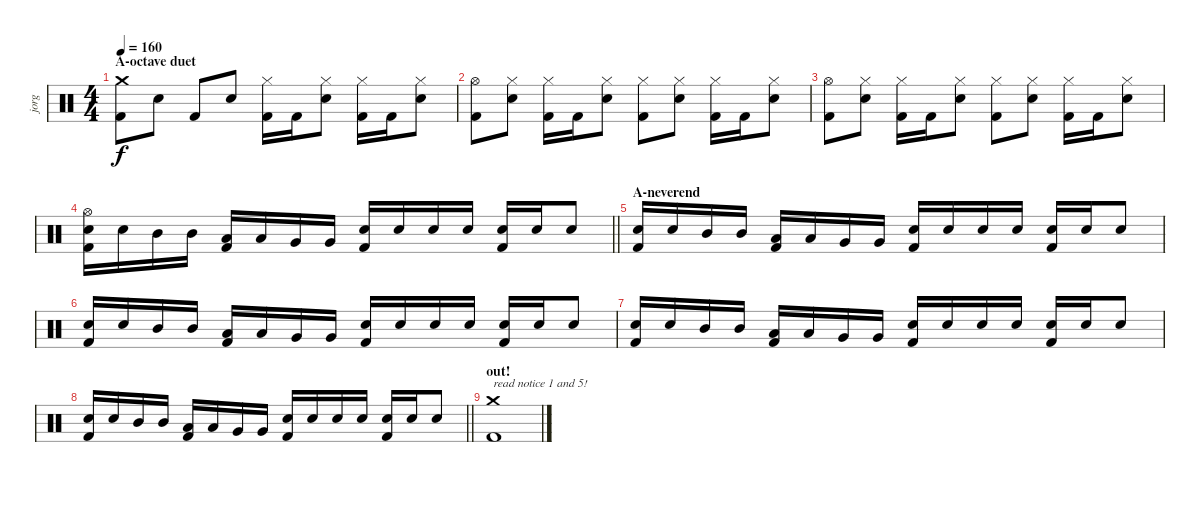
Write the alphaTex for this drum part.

\track ("jorg" "jorg") {instrument percussion}
\staff {score}
\articulation defaults
\ts (4 4)
\section ("" "A-octave duet")
\tempo 160
\clef neutral
\ks c
("Crash medium (hit)" "Kick (hit) 2").8{dy f} "Electric Snare (hit)".8 "Kick (hit) 2".8 "Electric Snare (hit)".8 ("Hi-Hat (closed)" "Kick (hit) 2").16 "Kick (hit) 2".16 ("Hi-Hat (closed)" "Electric Snare (hit)").8 ("Hi-Hat (closed)" "Kick (hit) 2").16 "Kick (hit) 2".16 ("Hi-Hat (closed)" "Electric Snare (hit)").8 |
("Hi-Hat (open)" "Kick (hit) 2").8 ("Hi-Hat (closed)" "Electric Snare (hit)").8 ("Hi-Hat (closed)" "Kick (hit) 2").16 "Kick (hit) 2".16 ("Hi-Hat (closed)" "Electric Snare (hit)").8 ("Hi-Hat (closed)" "Kick (hit) 2").8 ("Hi-Hat (closed)" "Electric Snare (hit)").8 ("Hi-Hat (closed)" "Kick (hit) 2").16 "Kick (hit) 2".16 ("Hi-Hat (closed)" "Electric Snare (hit)").8 |
("Hi-Hat (open)" "Kick (hit) 2").8 ("Hi-Hat (closed)" "Electric Snare (hit)").8 ("Hi-Hat (closed)" "Kick (hit) 2").16 "Kick (hit) 2".16 ("Hi-Hat (closed)" "Electric Snare (hit)").8 ("Hi-Hat (closed)" "Kick (hit) 2").8 ("Hi-Hat (closed)" "Electric Snare (hit)").8 ("Hi-Hat (closed)" "Kick (hit) 2").16 "Kick (hit) 2".16 ("Hi-Hat (closed)" "Electric Snare (hit)").8 |
\barLineRight lightlight
("Hi-Hat (open)" "Electric Snare (hit)" "Kick (hit) 2").16 "Electric Snare (hit)".16 "Mid Tom (hit)".16 "Mid Tom (hit)".16 ("Low Tom (hit)" "Kick (hit) 2").16 "Low Tom (hit)".16 "Very Low Tom (hit)".16 "Very Low Tom (hit)".16 ("Electric Snare (hit)" "Kick (hit) 2").16 "Electric Snare (hit)".16 "Electric Snare (hit)".16 "Electric Snare (hit)".16 ("Electric Snare (hit)" "Kick (hit) 2").16 "Electric Snare (hit)".16 "Electric Snare (hit)".8 |
\section ("" "A-neverend")
("Electric Snare (hit)" "Kick (hit) 2").16 "Electric Snare (hit)".16 "Mid Tom (hit)".16 "Mid Tom (hit)".16 ("Low Tom (hit)" "Kick (hit) 2").16 "Low Tom (hit)".16 "Very Low Tom (hit)".16 "Very Low Tom (hit)".16 ("Electric Snare (hit)" "Kick (hit) 2").16 "Electric Snare (hit)".16 "Electric Snare (hit)".16 "Electric Snare (hit)".16 ("Electric Snare (hit)" "Kick (hit) 2").16 "Electric Snare (hit)".16 "Electric Snare (hit)".8 |
("Electric Snare (hit)" "Kick (hit) 2").16 "Electric Snare (hit)".16 "Mid Tom (hit)".16 "Mid Tom (hit)".16 ("Low Tom (hit)" "Kick (hit) 2").16 "Low Tom (hit)".16 "Very Low Tom (hit)".16 "Very Low Tom (hit)".16 ("Electric Snare (hit)" "Kick (hit) 2").16 "Electric Snare (hit)".16 "Electric Snare (hit)".16 "Electric Snare (hit)".16 ("Electric Snare (hit)" "Kick (hit) 2").16 "Electric Snare (hit)".16 "Electric Snare (hit)".8 |
("Electric Snare (hit)" "Kick (hit) 2").16 "Electric Snare (hit)".16 "Mid Tom (hit)".16 "Mid Tom (hit)".16 ("Low Tom (hit)" "Kick (hit) 2").16 "Low Tom (hit)".16 "Very Low Tom (hit)".16 "Very Low Tom (hit)".16 ("Electric Snare (hit)" "Kick (hit) 2").16 "Electric Snare (hit)".16 "Electric Snare (hit)".16 "Electric Snare (hit)".16 ("Electric Snare (hit)" "Kick (hit) 2").16 "Electric Snare (hit)".16 "Electric Snare (hit)".8 |
\barLineRight lightlight
("Electric Snare (hit)" "Kick (hit) 2").16 "Electric Snare (hit)".16 "Mid Tom (hit)".16 "Mid Tom (hit)".16 ("Low Tom (hit)" "Kick (hit) 2").16 "Low Tom (hit)".16 "Very Low Tom (hit)".16 "Very Low Tom (hit)".16 ("Electric Snare (hit)" "Kick (hit) 2").16 "Electric Snare (hit)".16 "Electric Snare (hit)".16 "Electric Snare (hit)".16 ("Electric Snare (hit)" "Kick (hit) 2").16 "Electric Snare (hit)".16 "Electric Snare (hit)".8 |
\section ("" "out!")
("Crash medium (hit)" "Kick (hit) 2").1{txt "read notice 1 and 5!"}
